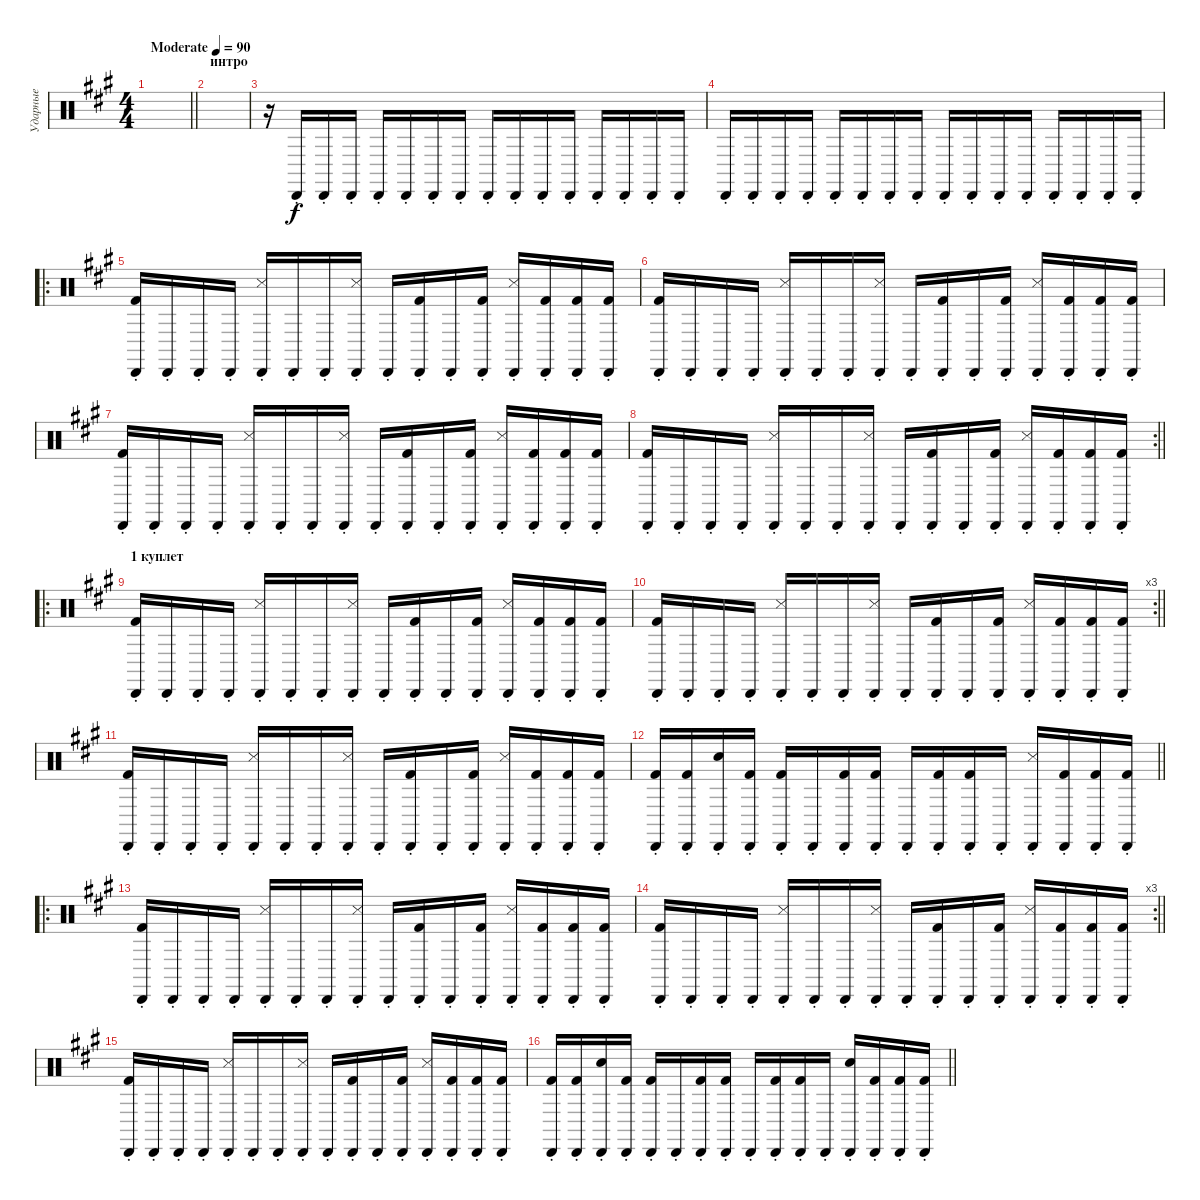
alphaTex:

\track ("Ударные" "Ударные") {instrument percussion}
\staff {score}
\articulation defaults
\ts (4 4)
\tempo (90 "Moderate")
\clef neutral
\barLineRight lightlight
\ks f#minor
|
\section ("" "интро")
|
r.16 "Cabasa (hit)"{st}.16 "Cabasa (hit)"{st}.16 "Cabasa (hit)"{st}.16 "Cabasa (hit)"{st}.16 "Cabasa (hit)"{st}.16 "Cabasa (hit)"{st}.16 "Cabasa (hit)"{st}.16 "Cabasa (hit)"{st}.16 "Cabasa (hit)"{st}.16 "Cabasa (hit)"{st}.16 "Cabasa (hit)"{st}.16 "Cabasa (hit)"{st}.16 "Cabasa (hit)"{st}.16 "Cabasa (hit)"{st}.16 "Cabasa (hit)"{st}.16 |
"Cabasa (hit)"{st}.16 "Cabasa (hit)"{st}.16 "Cabasa (hit)"{st}.16 "Cabasa (hit)"{st}.16 "Cabasa (hit)"{st}.16 "Cabasa (hit)"{st}.16 "Cabasa (hit)"{st}.16 "Cabasa (hit)"{st}.16 "Cabasa (hit)"{st}.16 "Cabasa (hit)"{st}.16 "Cabasa (hit)"{st}.16 "Cabasa (hit)"{st}.16 "Cabasa (hit)"{st}.16 "Cabasa (hit)"{st}.16 "Cabasa (hit)"{st}.16 "Cabasa (hit)"{st}.16 |
\ro
("Cabasa (hit)"{st} "Kick (hit) 2").16 "Cabasa (hit)"{st}.16 "Cabasa (hit)"{st}.16 "Cabasa (hit)"{st}.16 ("Cabasa (hit)"{st} "Snare (side stick) 3").16 "Cabasa (hit)"{st}.16 "Cabasa (hit)"{st}.16 ("Cabasa (hit)"{st} "Snare (side stick) 3").16 "Cabasa (hit)"{st}.16 ("Cabasa (hit)"{st} "Kick (hit) 2").16 "Cabasa (hit)"{st}.16 ("Cabasa (hit)"{st} "Kick (hit) 2").16 ("Cabasa (hit)"{st} "Snare (side stick) 3").16 ("Cabasa (hit)"{st} "Kick (hit) 2").16 ("Cabasa (hit)"{st} "Kick (hit) 2").16 ("Cabasa (hit)"{st} "Kick (hit) 2").16 |
("Cabasa (hit)"{st} "Kick (hit) 2").16 "Cabasa (hit)"{st}.16 "Cabasa (hit)"{st}.16 "Cabasa (hit)"{st}.16 ("Cabasa (hit)"{st} "Snare (side stick) 3").16 "Cabasa (hit)"{st}.16 "Cabasa (hit)"{st}.16 ("Cabasa (hit)"{st} "Snare (side stick) 3").16 "Cabasa (hit)"{st}.16 ("Cabasa (hit)"{st} "Kick (hit) 2").16 "Cabasa (hit)"{st}.16 ("Cabasa (hit)"{st} "Kick (hit) 2").16 ("Cabasa (hit)"{st} "Snare (side stick) 3").16 ("Cabasa (hit)"{st} "Kick (hit) 2").16 ("Cabasa (hit)"{st} "Kick (hit) 2").16 ("Cabasa (hit)"{st} "Kick (hit) 2").16 |
("Cabasa (hit)"{st} "Kick (hit) 2").16 "Cabasa (hit)"{st}.16 "Cabasa (hit)"{st}.16 "Cabasa (hit)"{st}.16 ("Cabasa (hit)"{st} "Snare (side stick) 3").16 "Cabasa (hit)"{st}.16 "Cabasa (hit)"{st}.16 ("Cabasa (hit)"{st} "Snare (side stick) 3").16 "Cabasa (hit)"{st}.16 ("Cabasa (hit)"{st} "Kick (hit) 2").16 "Cabasa (hit)"{st}.16 ("Cabasa (hit)"{st} "Kick (hit) 2").16 ("Cabasa (hit)"{st} "Snare (side stick) 3").16 ("Cabasa (hit)"{st} "Kick (hit) 2").16 ("Cabasa (hit)"{st} "Kick (hit) 2").16 ("Cabasa (hit)"{st} "Kick (hit) 2").16 |
\rc 2
\barLineRight lightlight
("Cabasa (hit)"{st} "Kick (hit) 2").16 "Cabasa (hit)"{st}.16 "Cabasa (hit)"{st}.16 "Cabasa (hit)"{st}.16 ("Cabasa (hit)"{st} "Snare (side stick) 3").16 "Cabasa (hit)"{st}.16 "Cabasa (hit)"{st}.16 ("Cabasa (hit)"{st} "Snare (side stick) 3").16 "Cabasa (hit)"{st}.16 ("Cabasa (hit)"{st} "Kick (hit) 2").16 "Cabasa (hit)"{st}.16 ("Cabasa (hit)"{st} "Kick (hit) 2").16 ("Cabasa (hit)"{st} "Snare (side stick) 3").16 ("Cabasa (hit)"{st} "Kick (hit) 2").16 ("Cabasa (hit)"{st} "Kick (hit) 2").16 ("Cabasa (hit)"{st} "Kick (hit) 2").16 |
\ro
\section ("" "1 куплет")
("Cabasa (hit)"{st} "Kick (hit) 2").16 "Cabasa (hit)"{st}.16 "Cabasa (hit)"{st}.16 "Cabasa (hit)"{st}.16 ("Cabasa (hit)"{st} "Snare (side stick) 3").16 "Cabasa (hit)"{st}.16 "Cabasa (hit)"{st}.16 ("Cabasa (hit)"{st} "Snare (side stick) 3").16 "Cabasa (hit)"{st}.16 ("Cabasa (hit)"{st} "Kick (hit) 2").16 "Cabasa (hit)"{st}.16 ("Cabasa (hit)"{st} "Kick (hit) 2").16 ("Cabasa (hit)"{st} "Snare (side stick) 3").16 ("Cabasa (hit)"{st} "Kick (hit) 2").16 ("Cabasa (hit)"{st} "Kick (hit) 2").16 ("Cabasa (hit)"{st} "Kick (hit) 2").16 |
\rc 3
\barLineRight lightlight
("Cabasa (hit)"{st} "Kick (hit) 2").16 "Cabasa (hit)"{st}.16 "Cabasa (hit)"{st}.16 "Cabasa (hit)"{st}.16 ("Cabasa (hit)"{st} "Snare (side stick) 3").16 "Cabasa (hit)"{st}.16 "Cabasa (hit)"{st}.16 ("Cabasa (hit)"{st} "Snare (side stick) 3").16 "Cabasa (hit)"{st}.16 ("Cabasa (hit)"{st} "Kick (hit) 2").16 "Cabasa (hit)"{st}.16 ("Cabasa (hit)"{st} "Kick (hit) 2").16 ("Cabasa (hit)"{st} "Snare (side stick) 3").16 ("Cabasa (hit)"{st} "Kick (hit) 2").16 ("Cabasa (hit)"{st} "Kick (hit) 2").16 ("Cabasa (hit)"{st} "Kick (hit) 2").16 |
("Cabasa (hit)"{st} "Kick (hit) 2").16 "Cabasa (hit)"{st}.16 "Cabasa (hit)"{st}.16 "Cabasa (hit)"{st}.16 ("Cabasa (hit)"{st} "Snare (side stick) 3").16 "Cabasa (hit)"{st}.16 "Cabasa (hit)"{st}.16 ("Cabasa (hit)"{st} "Snare (side stick) 3").16 "Cabasa (hit)"{st}.16 ("Cabasa (hit)"{st} "Kick (hit) 2").16 "Cabasa (hit)"{st}.16 ("Cabasa (hit)"{st} "Kick (hit) 2").16 ("Cabasa (hit)"{st} "Snare (side stick) 3").16 ("Cabasa (hit)"{st} "Kick (hit) 2").16 ("Cabasa (hit)"{st} "Kick (hit) 2").16 ("Cabasa (hit)"{st} "Kick (hit) 2").16 |
\barLineRight lightlight
("Cabasa (hit)"{st} "Kick (hit) 2").16 ("Cabasa (hit)"{st} "Kick (hit) 2").16 ("Cabasa (hit)"{st} "Snare (hit) 2").16 ("Cabasa (hit)"{st} "Kick (hit) 2").16 ("Cabasa (hit)"{st} "Kick (hit) 2").16 "Cabasa (hit)"{st}.16 ("Cabasa (hit)"{st} "Kick (hit) 2").16 ("Cabasa (hit)"{st} "Kick (hit) 2").16 "Cabasa (hit)"{st}.16 ("Cabasa (hit)"{st} "Kick (hit) 2").16 ("Cabasa (hit)"{st} "Kick (hit) 2").16 "Cabasa (hit)"{st}.16 ("Cabasa (hit)"{st} "Snare (side stick) 3").16 ("Cabasa (hit)"{st} "Kick (hit) 2").16 ("Cabasa (hit)"{st} "Kick (hit) 2").16 ("Cabasa (hit)"{st} "Kick (hit) 2").16 |
\ro
("Cabasa (hit)"{st} "Kick (hit) 2").16 "Cabasa (hit)"{st}.16 "Cabasa (hit)"{st}.16 "Cabasa (hit)"{st}.16 ("Cabasa (hit)"{st} "Snare (side stick) 3").16 "Cabasa (hit)"{st}.16 "Cabasa (hit)"{st}.16 ("Cabasa (hit)"{st} "Snare (side stick) 3").16 "Cabasa (hit)"{st}.16 ("Cabasa (hit)"{st} "Kick (hit) 2").16 "Cabasa (hit)"{st}.16 ("Cabasa (hit)"{st} "Kick (hit) 2").16 ("Cabasa (hit)"{st} "Snare (side stick) 3").16 ("Cabasa (hit)"{st} "Kick (hit) 2").16 ("Cabasa (hit)"{st} "Kick (hit) 2").16 ("Cabasa (hit)"{st} "Kick (hit) 2").16 |
\rc 3
\barLineRight lightlight
("Cabasa (hit)"{st} "Kick (hit) 2").16 "Cabasa (hit)"{st}.16 "Cabasa (hit)"{st}.16 "Cabasa (hit)"{st}.16 ("Cabasa (hit)"{st} "Snare (side stick) 3").16 "Cabasa (hit)"{st}.16 "Cabasa (hit)"{st}.16 ("Cabasa (hit)"{st} "Snare (side stick) 3").16 "Cabasa (hit)"{st}.16 ("Cabasa (hit)"{st} "Kick (hit) 2").16 "Cabasa (hit)"{st}.16 ("Cabasa (hit)"{st} "Kick (hit) 2").16 ("Cabasa (hit)"{st} "Snare (side stick) 3").16 ("Cabasa (hit)"{st} "Kick (hit) 2").16 ("Cabasa (hit)"{st} "Kick (hit) 2").16 ("Cabasa (hit)"{st} "Kick (hit) 2").16 |
("Cabasa (hit)"{st} "Kick (hit) 2").16 "Cabasa (hit)"{st}.16 "Cabasa (hit)"{st}.16 "Cabasa (hit)"{st}.16 ("Cabasa (hit)"{st} "Snare (side stick) 3").16 "Cabasa (hit)"{st}.16 "Cabasa (hit)"{st}.16 ("Cabasa (hit)"{st} "Snare (side stick) 3").16 "Cabasa (hit)"{st}.16 ("Cabasa (hit)"{st} "Kick (hit) 2").16 "Cabasa (hit)"{st}.16 ("Cabasa (hit)"{st} "Kick (hit) 2").16 ("Cabasa (hit)"{st} "Snare (side stick) 3").16 ("Cabasa (hit)"{st} "Kick (hit) 2").16 ("Cabasa (hit)"{st} "Kick (hit) 2").16 ("Cabasa (hit)"{st} "Kick (hit) 2").16 |
\barLineRight lightlight
("Cabasa (hit)"{st} "Kick (hit) 2").16 ("Cabasa (hit)"{st} "Kick (hit) 2").16 ("Cabasa (hit)"{st} "Snare (hit) 2").16 ("Cabasa (hit)"{st} "Kick (hit) 2").16 ("Cabasa (hit)"{st} "Kick (hit) 2").16 "Cabasa (hit)"{st}.16 ("Cabasa (hit)"{st} "Kick (hit) 2").16 ("Cabasa (hit)"{st} "Kick (hit) 2").16 "Cabasa (hit)"{st}.16 ("Cabasa (hit)"{st} "Kick (hit) 2").16 ("Cabasa (hit)"{st} "Kick (hit) 2").16 "Cabasa (hit)"{st}.16 ("Cabasa (hit)"{st} "Snare (hit) 2").16 ("Cabasa (hit)"{st} "Kick (hit) 2").16 ("Cabasa (hit)"{st} "Kick (hit) 2").16 ("Cabasa (hit)"{st} "Kick (hit) 2").16
